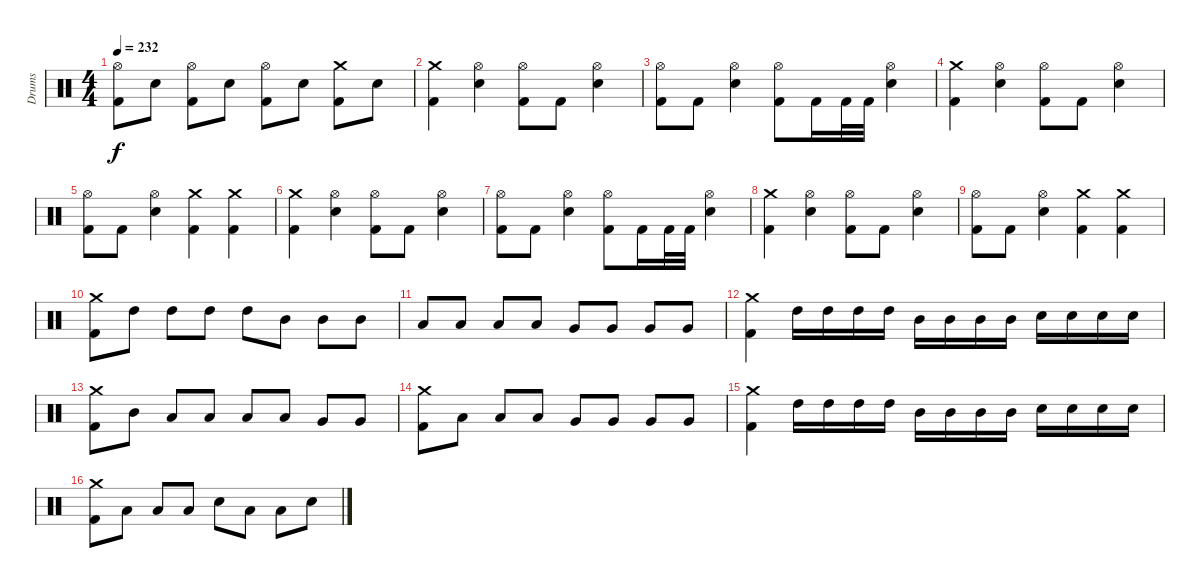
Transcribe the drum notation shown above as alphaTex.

\track ("Drums" "Drums") {instrument percussion}
\staff {score}
\articulation defaults
\ts (4 4)
\tempo 232
\clef neutral
\ks c
("Hi-Hat (open)" "Kick (hit) 2").8{dy f} "Electric Snare (hit)".8 ("Hi-Hat (open)" "Kick (hit) 2").8 "Electric Snare (hit)".8 ("Hi-Hat (open)" "Kick (hit) 2").8 "Electric Snare (hit)".8 ("Crash medium (hit)" "Kick (hit) 2").8 "Electric Snare (hit)".8 |
("Kick (hit) 2" "Crash medium (hit)").4 ("Hi-Hat (open)" "Electric Snare (hit)").4 ("Hi-Hat (open)" "Kick (hit) 2").8 "Kick (hit) 2".8 ("Hi-Hat (open)" "Electric Snare (hit)").4 |
("Hi-Hat (open)" "Kick (hit) 2").8 "Kick (hit) 2".8 ("Hi-Hat (open)" "Electric Snare (hit)").4 ("Hi-Hat (open)" "Kick (hit) 2").8 "Kick (hit) 2".16 "Kick (hit) 2".32 "Kick (hit) 2".32 ("Hi-Hat (open)" "Electric Snare (hit)").4 |
("Kick (hit) 2" "Crash medium (hit)").4 ("Hi-Hat (open)" "Electric Snare (hit)").4 ("Hi-Hat (open)" "Kick (hit) 2").8 "Kick (hit) 2".8 ("Hi-Hat (open)" "Electric Snare (hit)").4 |
("Hi-Hat (open)" "Kick (hit) 2").8 "Kick (hit) 2".8 ("Hi-Hat (open)" "Electric Snare (hit)").4 ("Kick (hit) 2" "Crash medium (hit)").4 ("Kick (hit) 2" "Crash medium (hit)").4 |
("Kick (hit) 2" "Crash medium (hit)").4 ("Hi-Hat (open)" "Electric Snare (hit)").4 ("Hi-Hat (open)" "Kick (hit) 2").8 "Kick (hit) 2".8 ("Hi-Hat (open)" "Electric Snare (hit)").4 |
("Hi-Hat (open)" "Kick (hit) 2").8 "Kick (hit) 2".8 ("Hi-Hat (open)" "Electric Snare (hit)").4 ("Hi-Hat (open)" "Kick (hit) 2").8 "Kick (hit) 2".16 "Kick (hit) 2".32 "Kick (hit) 2".32 ("Hi-Hat (open)" "Electric Snare (hit)").4 |
("Kick (hit) 2" "Crash medium (hit)").4 ("Hi-Hat (open)" "Electric Snare (hit)").4 ("Hi-Hat (open)" "Kick (hit) 2").8 "Kick (hit) 2".8 ("Hi-Hat (open)" "Electric Snare (hit)").4 |
("Hi-Hat (open)" "Kick (hit) 2").8 "Kick (hit) 2".8 ("Hi-Hat (open)" "Electric Snare (hit)").4 ("Kick (hit) 2" "Crash medium (hit)").4 ("Kick (hit) 2" "Crash medium (hit)").4 |
("Kick (hit) 2" "Crash medium (hit)").8 "High Tom (hit)".8 "High Tom (hit)".8 "High Tom (hit)".8 "High Tom (hit)".8 "Mid Tom (hit)".8 "Mid Tom (hit)".8 "Mid Tom (hit)".8 |
"Low Tom (hit)".8 "Low Tom (hit)".8 "Low Tom (hit)".8 "Low Tom (hit)".8 "Very Low Tom (hit)".8 "Very Low Tom (hit)".8 "Very Low Tom (hit)".8 "Very Low Tom (hit)".8 |
("Crash medium (hit)" "Kick (hit) 2").4 "High Tom (hit)".16 "High Tom (hit)".16 "High Tom (hit)".16 "High Tom (hit)".16 "Mid Tom (hit)".16 "Mid Tom (hit)".16 "Mid Tom (hit)".16 "Mid Tom (hit)".16 "Electric Snare (hit)".16 "Electric Snare (hit)".16 "Electric Snare (hit)".16 "Electric Snare (hit)".16 |
("Crash medium (hit)" "Kick (hit) 2").8 "Mid Tom (hit)".8 "Low Tom (hit)".8 "Low Tom (hit)".8 "Low Tom (hit)".8 "Low Tom (hit)".8 "Very Low Tom (hit)".8 "Very Low Tom (hit)".8 |
("Crash medium (hit)" "Kick (hit) 2").8 "Low Tom (hit)".8 "Low Tom (hit)".8 "Low Tom (hit)".8 "Very Low Tom (hit)".8 "Very Low Tom (hit)".8 "Very Low Tom (hit)".8 "Very Low Tom (hit)".8 |
("Crash medium (hit)" "Kick (hit) 2").4 "High Tom (hit)".16 "High Tom (hit)".16 "High Tom (hit)".16 "High Tom (hit)".16 "Mid Tom (hit)".16 "Mid Tom (hit)".16 "Mid Tom (hit)".16 "Mid Tom (hit)".16 "Electric Snare (hit)".16 "Electric Snare (hit)".16 "Electric Snare (hit)".16 "Electric Snare (hit)".16 |
("Crash medium (hit)" "Kick (hit) 2").8 "Low Tom (hit)".8 "Low Tom (hit)".8 "Low Tom (hit)".8 "Electric Snare (hit)".8 "Low Tom (hit)".8 "Low Tom (hit)".8 "Electric Snare (hit)".8
